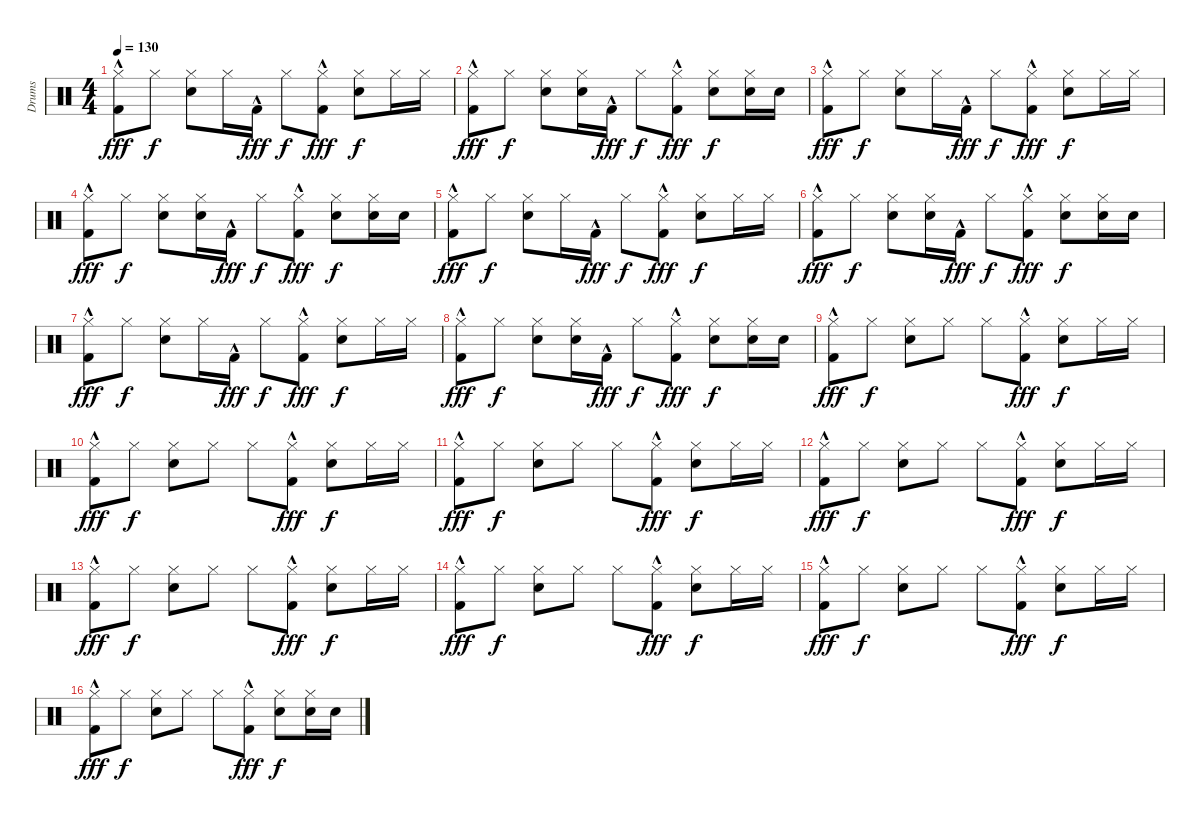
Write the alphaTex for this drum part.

\track ("Drums" "Drums") {instrument percussion}
\staff {score}
\articulation defaults
\ts (4 4)
\tempo 130
\clef neutral
\ks c
("Hi-Hat (closed)" "Kick (hit) 2"{hac}).8{dy fff} "Hi-Hat (closed)".8{dy f} ("Hi-Hat (closed)" "Snare (hit) 2").8 "Hi-Hat (closed)".16 "Kick (hit) 2"{hac}.16{dy fff} "Hi-Hat (closed)".8{dy f} ("Hi-Hat (closed)" "Kick (hit) 2"{hac}).8{dy fff} ("Hi-Hat (closed)" "Snare (hit) 2").8{dy f} "Hi-Hat (closed)".16 "Hi-Hat (closed)".16 |
("Hi-Hat (closed)" "Kick (hit) 2"{hac}).8{dy fff} "Hi-Hat (closed)".8{dy f} ("Hi-Hat (closed)" "Snare (hit) 2").8 ("Hi-Hat (closed)" "Snare (hit) 2").16 "Kick (hit) 2"{hac}.16{dy fff} "Hi-Hat (closed)".8{dy f} ("Hi-Hat (closed)" "Kick (hit) 2"{hac}).8{dy fff} ("Hi-Hat (closed)" "Snare (hit) 2").8{dy f} ("Hi-Hat (closed)" "Snare (hit) 2").16 "Snare (hit) 2".16 |
("Hi-Hat (closed)" "Kick (hit) 2"{hac}).8{dy fff} "Hi-Hat (closed)".8{dy f} ("Hi-Hat (closed)" "Snare (hit) 2").8 "Hi-Hat (closed)".16 "Kick (hit) 2"{hac}.16{dy fff} "Hi-Hat (closed)".8{dy f} ("Hi-Hat (closed)" "Kick (hit) 2"{hac}).8{dy fff} ("Hi-Hat (closed)" "Snare (hit) 2").8{dy f} "Hi-Hat (closed)".16 "Hi-Hat (closed)".16 |
("Hi-Hat (closed)" "Kick (hit) 2"{hac}).8{dy fff} "Hi-Hat (closed)".8{dy f} ("Hi-Hat (closed)" "Snare (hit) 2").8 ("Hi-Hat (closed)" "Snare (hit) 2").16 "Kick (hit) 2"{hac}.16{dy fff} "Hi-Hat (closed)".8{dy f} ("Hi-Hat (closed)" "Kick (hit) 2"{hac}).8{dy fff} ("Hi-Hat (closed)" "Snare (hit) 2").8{dy f} ("Hi-Hat (closed)" "Snare (hit) 2").16 "Snare (hit) 2".16 |
("Hi-Hat (closed)" "Kick (hit) 2"{hac}).8{dy fff} "Hi-Hat (closed)".8{dy f} ("Hi-Hat (closed)" "Snare (hit) 2").8 "Hi-Hat (closed)".16 "Kick (hit) 2"{hac}.16{dy fff} "Hi-Hat (closed)".8{dy f} ("Hi-Hat (closed)" "Kick (hit) 2"{hac}).8{dy fff} ("Hi-Hat (closed)" "Snare (hit) 2").8{dy f} "Hi-Hat (closed)".16 "Hi-Hat (closed)".16 |
("Hi-Hat (closed)" "Kick (hit) 2"{hac}).8{dy fff} "Hi-Hat (closed)".8{dy f} ("Hi-Hat (closed)" "Snare (hit) 2").8 ("Hi-Hat (closed)" "Snare (hit) 2").16 "Kick (hit) 2"{hac}.16{dy fff} "Hi-Hat (closed)".8{dy f} ("Hi-Hat (closed)" "Kick (hit) 2"{hac}).8{dy fff} ("Hi-Hat (closed)" "Snare (hit) 2").8{dy f} ("Hi-Hat (closed)" "Snare (hit) 2").16 "Snare (hit) 2".16 |
("Hi-Hat (closed)" "Kick (hit) 2"{hac}).8{dy fff} "Hi-Hat (closed)".8{dy f} ("Hi-Hat (closed)" "Snare (hit) 2").8 "Hi-Hat (closed)".16 "Kick (hit) 2"{hac}.16{dy fff} "Hi-Hat (closed)".8{dy f} ("Hi-Hat (closed)" "Kick (hit) 2"{hac}).8{dy fff} ("Hi-Hat (closed)" "Snare (hit) 2").8{dy f} "Hi-Hat (closed)".16 "Hi-Hat (closed)".16 |
("Hi-Hat (closed)" "Kick (hit) 2"{hac}).8{dy fff} "Hi-Hat (closed)".8{dy f} ("Hi-Hat (closed)" "Snare (hit) 2").8 ("Hi-Hat (closed)" "Snare (hit) 2").16 "Kick (hit) 2"{hac}.16{dy fff} "Hi-Hat (closed)".8{dy f} ("Hi-Hat (closed)" "Kick (hit) 2"{hac}).8{dy fff} ("Hi-Hat (closed)" "Snare (hit) 2").8{dy f} ("Hi-Hat (closed)" "Snare (hit) 2").16 "Snare (hit) 2".16 |
("Hi-Hat (closed)" "Kick (hit) 2"{hac}).8{dy fff} "Hi-Hat (closed)".8{dy f} ("Hi-Hat (closed)" "Snare (hit) 2").8 "Hi-Hat (closed)".8 "Hi-Hat (closed)".8 ("Hi-Hat (closed)" "Kick (hit) 2"{hac}).8{dy fff} ("Hi-Hat (closed)" "Snare (hit) 2").8{dy f} "Hi-Hat (closed)".16 "Hi-Hat (closed)".16 |
("Hi-Hat (closed)" "Kick (hit) 2"{hac}).8{dy fff} "Hi-Hat (closed)".8{dy f} ("Hi-Hat (closed)" "Snare (hit) 2").8 "Hi-Hat (closed)".8 "Hi-Hat (closed)".8 ("Hi-Hat (closed)" "Kick (hit) 2"{hac}).8{dy fff} ("Hi-Hat (closed)" "Snare (hit) 2").8{dy f} "Hi-Hat (closed)".16 "Hi-Hat (closed)".16 |
("Hi-Hat (closed)" "Kick (hit) 2"{hac}).8{dy fff} "Hi-Hat (closed)".8{dy f} ("Hi-Hat (closed)" "Snare (hit) 2").8 "Hi-Hat (closed)".8 "Hi-Hat (closed)".8 ("Hi-Hat (closed)" "Kick (hit) 2"{hac}).8{dy fff} ("Hi-Hat (closed)" "Snare (hit) 2").8{dy f} "Hi-Hat (closed)".16 "Hi-Hat (closed)".16 |
("Hi-Hat (closed)" "Kick (hit) 2"{hac}).8{dy fff} "Hi-Hat (closed)".8{dy f} ("Hi-Hat (closed)" "Snare (hit) 2").8 "Hi-Hat (closed)".8 "Hi-Hat (closed)".8 ("Hi-Hat (closed)" "Kick (hit) 2"{hac}).8{dy fff} ("Hi-Hat (closed)" "Snare (hit) 2").8{dy f} "Hi-Hat (closed)".16 "Hi-Hat (closed)".16 |
("Hi-Hat (closed)" "Kick (hit) 2"{hac}).8{dy fff} "Hi-Hat (closed)".8{dy f} ("Hi-Hat (closed)" "Snare (hit) 2").8 "Hi-Hat (closed)".8 "Hi-Hat (closed)".8 ("Hi-Hat (closed)" "Kick (hit) 2"{hac}).8{dy fff} ("Hi-Hat (closed)" "Snare (hit) 2").8{dy f} "Hi-Hat (closed)".16 "Hi-Hat (closed)".16 |
("Hi-Hat (closed)" "Kick (hit) 2"{hac}).8{dy fff} "Hi-Hat (closed)".8{dy f} ("Hi-Hat (closed)" "Snare (hit) 2").8 "Hi-Hat (closed)".8 "Hi-Hat (closed)".8 ("Hi-Hat (closed)" "Kick (hit) 2"{hac}).8{dy fff} ("Hi-Hat (closed)" "Snare (hit) 2").8{dy f} "Hi-Hat (closed)".16 "Hi-Hat (closed)".16 |
("Hi-Hat (closed)" "Kick (hit) 2"{hac}).8{dy fff} "Hi-Hat (closed)".8{dy f} ("Hi-Hat (closed)" "Snare (hit) 2").8 "Hi-Hat (closed)".8 "Hi-Hat (closed)".8 ("Hi-Hat (closed)" "Kick (hit) 2"{hac}).8{dy fff} ("Hi-Hat (closed)" "Snare (hit) 2").8{dy f} "Hi-Hat (closed)".16 "Hi-Hat (closed)".16 |
("Hi-Hat (closed)" "Kick (hit) 2"{hac}).8{dy fff} "Hi-Hat (closed)".8{dy f} ("Hi-Hat (closed)" "Snare (hit) 2").8 "Hi-Hat (closed)".8 "Hi-Hat (closed)".8 ("Hi-Hat (closed)" "Kick (hit) 2"{hac}).8{dy fff} ("Hi-Hat (closed)" "Snare (hit) 2").8{dy f} ("Hi-Hat (closed)" "Snare (hit) 2").16 "Snare (hit) 2".16
